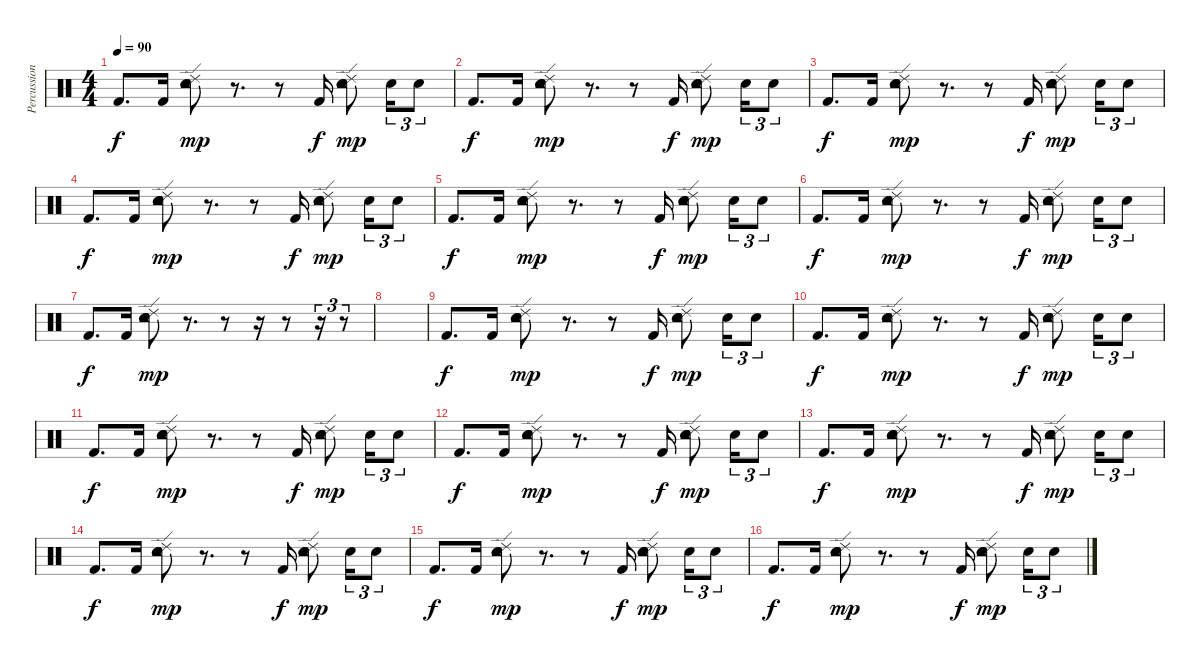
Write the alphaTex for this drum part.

\track ("Percussion" "Percussion") {instrument percussion}
\staff {score}
\articulation defaults
\ts (4 4)
\tempo 90
\clef neutral
\ks c "Kick (hit) 2".8{d dy f} "Kick (hit) 2".16
("Ride (edge) 2" "Tambourine (hit)" "Electric Snare (hit)" "Snare (hit) 2").8{dy mp} r.8{d} r.8 "Kick (hit) 2".16{dy f} ("Ride (edge) 2" "Tambourine (hit)" "Electric Snare (hit)" "Snare (hit) 2").8{dy mp} "Electric Snare (hit)".16{tu (3 2)} "Electric Snare (hit)".8{tu (3 2)} |
"Kick (hit) 2".8{d dy f} "Kick (hit) 2".16 ("Ride (edge) 2" "Tambourine (hit)" "Electric Snare (hit)" "Snare (hit) 2").8{dy mp} r.8{d} r.8 "Kick (hit) 2".16{dy f} ("Ride (edge) 2" "Tambourine (hit)" "Electric Snare (hit)" "Snare (hit) 2").8{dy mp} "Electric Snare (hit)".16{tu (3 2)} "Electric Snare (hit)".8{tu (3 2)} |
"Kick (hit) 2".8{d dy f} "Kick (hit) 2".16 ("Ride (edge) 2" "Tambourine (hit)" "Electric Snare (hit)" "Snare (hit) 2").8{dy mp} r.8{d} r.8 "Kick (hit) 2".16{dy f} ("Ride (edge) 2" "Tambourine (hit)" "Electric Snare (hit)" "Snare (hit) 2").8{dy mp} "Electric Snare (hit)".16{tu (3 2)} "Electric Snare (hit)".8{tu (3 2)} |
"Kick (hit) 2".8{d dy f} "Kick (hit) 2".16 ("Ride (edge) 2" "Tambourine (hit)" "Electric Snare (hit)" "Snare (hit) 2").8{dy mp} r.8{d} r.8 "Kick (hit) 2".16{dy f} ("Ride (edge) 2" "Tambourine (hit)" "Electric Snare (hit)" "Snare (hit) 2").8{dy mp} "Electric Snare (hit)".16{tu (3 2)} "Electric Snare (hit)".8{tu (3 2)} |
"Kick (hit) 2".8{d dy f} "Kick (hit) 2".16 ("Ride (edge) 2" "Tambourine (hit)" "Electric Snare (hit)" "Snare (hit) 2").8{dy mp} r.8{d} r.8 "Kick (hit) 2".16{dy f} ("Ride (edge) 2" "Tambourine (hit)" "Electric Snare (hit)" "Snare (hit) 2").8{dy mp} "Electric Snare (hit)".16{tu (3 2)} "Electric Snare (hit)".8{tu (3 2)} |
"Kick (hit) 2".8{d dy f} "Kick (hit) 2".16 ("Ride (edge) 2" "Tambourine (hit)" "Electric Snare (hit)" "Snare (hit) 2").8{dy mp} r.8{d} r.8 "Kick (hit) 2".16{dy f} ("Ride (edge) 2" "Tambourine (hit)" "Electric Snare (hit)" "Snare (hit) 2").8{dy mp} "Electric Snare (hit)".16{tu (3 2)} "Electric Snare (hit)".8{tu (3 2)} |
"Kick (hit) 2".8{d dy f} "Kick (hit) 2".16 ("Ride (edge) 2" "Tambourine (hit)" "Electric Snare (hit)" "Snare (hit) 2").8{dy mp} r.8{d} r.8 r.16 r.8 r.16{tu (3 2)} r.8{tu (3 2)} |
|
"Kick (hit) 2".8{d dy f} "Kick (hit) 2".16 ("Ride (edge) 2" "Tambourine (hit)" "Electric Snare (hit)" "Snare (hit) 2").8{dy mp} r.8{d} r.8 "Kick (hit) 2".16{dy f} ("Ride (edge) 2" "Tambourine (hit)" "Electric Snare (hit)" "Snare (hit) 2").8{dy mp} "Electric Snare (hit)".16{tu (3 2)} "Electric Snare (hit)".8{tu (3 2)} |
"Kick (hit) 2".8{d dy f} "Kick (hit) 2".16 ("Ride (edge) 2" "Tambourine (hit)" "Electric Snare (hit)" "Snare (hit) 2").8{dy mp} r.8{d} r.8 "Kick (hit) 2".16{dy f} ("Ride (edge) 2" "Tambourine (hit)" "Electric Snare (hit)" "Snare (hit) 2").8{dy mp} "Electric Snare (hit)".16{tu (3 2)} "Electric Snare (hit)".8{tu (3 2)} |
"Kick (hit) 2".8{d dy f} "Kick (hit) 2".16 ("Ride (edge) 2" "Tambourine (hit)" "Electric Snare (hit)" "Snare (hit) 2").8{dy mp} r.8{d} r.8 "Kick (hit) 2".16{dy f} ("Ride (edge) 2" "Tambourine (hit)" "Electric Snare (hit)" "Snare (hit) 2").8{dy mp} "Electric Snare (hit)".16{tu (3 2)} "Electric Snare (hit)".8{tu (3 2)} |
"Kick (hit) 2".8{d dy f} "Kick (hit) 2".16 ("Ride (edge) 2" "Tambourine (hit)" "Electric Snare (hit)" "Snare (hit) 2").8{dy mp} r.8{d} r.8 "Kick (hit) 2".16{dy f} ("Ride (edge) 2" "Tambourine (hit)" "Electric Snare (hit)" "Snare (hit) 2").8{dy mp} "Electric Snare (hit)".16{tu (3 2)} "Electric Snare (hit)".8{tu (3 2)} |
"Kick (hit) 2".8{d dy f} "Kick (hit) 2".16 ("Ride (edge) 2" "Tambourine (hit)" "Electric Snare (hit)" "Snare (hit) 2").8{dy mp} r.8{d} r.8 "Kick (hit) 2".16{dy f} ("Ride (edge) 2" "Tambourine (hit)" "Electric Snare (hit)" "Snare (hit) 2").8{dy mp} "Electric Snare (hit)".16{tu (3 2)} "Electric Snare (hit)".8{tu (3 2)} |
"Kick (hit) 2".8{d dy f} "Kick (hit) 2".16 ("Ride (edge) 2" "Tambourine (hit)" "Electric Snare (hit)" "Snare (hit) 2").8{dy mp} r.8{d} r.8 "Kick (hit) 2".16{dy f} ("Ride (edge) 2" "Tambourine (hit)" "Electric Snare (hit)" "Snare (hit) 2").8{dy mp} "Electric Snare (hit)".16{tu (3 2)} "Electric Snare (hit)".8{tu (3 2)} |
"Kick (hit) 2".8{d dy f} "Kick (hit) 2".16 ("Ride (edge) 2" "Tambourine (hit)" "Electric Snare (hit)" "Snare (hit) 2").8{dy mp} r.8{d} r.8 "Kick (hit) 2".16{dy f} ("Ride (edge) 2" "Tambourine (hit)" "Electric Snare (hit)" "Snare (hit) 2").8{dy mp} "Electric Snare (hit)".16{tu (3 2)} "Electric Snare (hit)".8{tu (3 2)} |
"Kick (hit) 2".8{d dy f} "Kick (hit) 2".16 ("Ride (edge) 2" "Tambourine (hit)" "Electric Snare (hit)" "Snare (hit) 2").8{dy mp} r.8{d} r.8 "Kick (hit) 2".16{dy f} ("Ride (edge) 2" "Tambourine (hit)" "Electric Snare (hit)" "Snare (hit) 2").8{dy mp} "Electric Snare (hit)".16{tu (3 2)} "Electric Snare (hit)".8{tu (3 2)}
